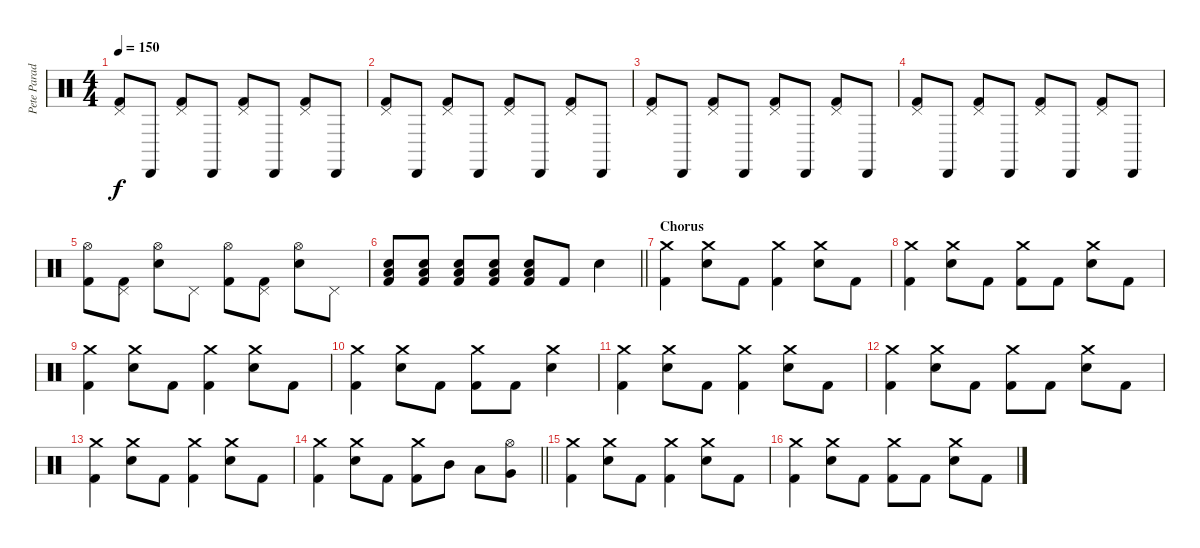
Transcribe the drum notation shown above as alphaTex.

\track ("Pete Parada - Drums" "Pete Parad") {instrument percussion}
\staff {score}
\articulation defaults
\ts (4 4)
\tempo 150
\clef neutral
\ks c
("Pedal Hi-Hat (hit)" "Kick (hit) 2").8{dy f} "Cabasa (hit)".8 ("Pedal Hi-Hat (hit)" "Kick (hit) 2").8 "Cabasa (hit)".8 ("Pedal Hi-Hat (hit)" "Kick (hit) 2").8 "Cabasa (hit)".8 ("Pedal Hi-Hat (hit)" "Kick (hit) 2").8 "Cabasa (hit)".8 |
("Pedal Hi-Hat (hit)" "Kick (hit) 2").8 "Cabasa (hit)".8 ("Pedal Hi-Hat (hit)" "Kick (hit) 2").8 "Cabasa (hit)".8 ("Pedal Hi-Hat (hit)" "Kick (hit) 2").8 "Cabasa (hit)".8 ("Pedal Hi-Hat (hit)" "Kick (hit) 2").8 "Cabasa (hit)".8 |
("Pedal Hi-Hat (hit)" "Kick (hit) 2").8 "Cabasa (hit)".8 ("Pedal Hi-Hat (hit)" "Kick (hit) 2").8 "Cabasa (hit)".8 ("Pedal Hi-Hat (hit)" "Kick (hit) 2").8 "Cabasa (hit)".8 ("Pedal Hi-Hat (hit)" "Kick (hit) 2").8 "Cabasa (hit)".8 |
("Pedal Hi-Hat (hit)" "Kick (hit) 2").8 "Cabasa (hit)".8 ("Pedal Hi-Hat (hit)" "Kick (hit) 2").8 "Cabasa (hit)".8 ("Pedal Hi-Hat (hit)" "Kick (hit) 2").8 "Cabasa (hit)".8 ("Pedal Hi-Hat (hit)" "Kick (hit) 2").8 "Cabasa (hit)".8 |
("Hi-Hat (open)" "Kick (hit) 2").8 ("Pedal Hi-Hat (hit)" "Kick (hit) 2").8 ("Hi-Hat (open)" "Electric Snare (hit)").8 "Pedal Hi-Hat (hit)".8 ("Hi-Hat (open)" "Kick (hit) 2").8 ("Pedal Hi-Hat (hit)" "Kick (hit) 2").8 ("Hi-Hat (open)" "Electric Snare (hit)").8 "Pedal Hi-Hat (hit)".8 |
\barLineRight lightlight
("Electric Snare (hit)" "Low Floor Tom (hit)" "Kick (hit) 2").8 ("Electric Snare (hit)" "Low Floor Tom (hit)" "Kick (hit) 2").8 ("Electric Snare (hit)" "Low Floor Tom (hit)" "Kick (hit) 2").8 ("Electric Snare (hit)" "Low Floor Tom (hit)" "Kick (hit) 2").8 ("Electric Snare (hit)" "Low Floor Tom (hit)" "Kick (hit) 2").8 "Kick (hit) 2".8 "Electric Snare (hit)".4 |
\section ("" "Chorus")
("Crash medium (hit)" "Kick (hit) 2").4 ("Crash medium (hit)" "Electric Snare (hit)").8 "Kick (hit) 2".8 ("Crash medium (hit)" "Kick (hit) 2").4 ("Crash medium (hit)" "Electric Snare (hit)").8 "Kick (hit) 2".8 |
("Crash medium (hit)" "Kick (hit) 2").4 ("Crash medium (hit)" "Electric Snare (hit)").8 "Kick (hit) 2".8 ("Crash medium (hit)" "Kick (hit) 2").8 "Kick (hit) 2".8 ("Crash medium (hit)" "Electric Snare (hit)").8 "Kick (hit) 2".8 |
("Crash medium (hit)" "Kick (hit) 2").4 ("Crash medium (hit)" "Electric Snare (hit)").8 "Kick (hit) 2".8 ("Crash medium (hit)" "Kick (hit) 2").4 ("Crash medium (hit)" "Electric Snare (hit)").8 "Kick (hit) 2".8 |
("Crash medium (hit)" "Kick (hit) 2").4 ("Crash medium (hit)" "Electric Snare (hit)").8 "Kick (hit) 2".8 ("Crash medium (hit)" "Kick (hit) 2").8 "Kick (hit) 2".8 ("Crash medium (hit)" "Electric Snare (hit)").4 |
("Crash medium (hit)" "Kick (hit) 2").4 ("Crash medium (hit)" "Electric Snare (hit)").8 "Kick (hit) 2".8 ("Crash medium (hit)" "Kick (hit) 2").4 ("Crash medium (hit)" "Electric Snare (hit)").8 "Kick (hit) 2".8 |
("Crash medium (hit)" "Kick (hit) 2").4 ("Crash medium (hit)" "Electric Snare (hit)").8 "Kick (hit) 2".8 ("Crash medium (hit)" "Kick (hit) 2").8 "Kick (hit) 2".8 ("Crash medium (hit)" "Electric Snare (hit)").8 "Kick (hit) 2".8 |
("Crash medium (hit)" "Kick (hit) 2").4 ("Crash medium (hit)" "Electric Snare (hit)").8 "Kick (hit) 2".8 ("Crash medium (hit)" "Kick (hit) 2").4 ("Crash medium (hit)" "Electric Snare (hit)").8 "Kick (hit) 2".8 |
\barLineRight lightlight
("Crash medium (hit)" "Kick (hit) 2").4 ("Crash medium (hit)" "Electric Snare (hit)").8 "Kick (hit) 2".8 ("Crash medium (hit)" "Kick (hit) 2").8 "Mid Tom (hit)".8 "Low Tom (hit)".8 ("Hi-Hat (open)" "Very Low Tom (hit)").8 |
("Crash medium (hit)" "Kick (hit) 2").4 ("Crash medium (hit)" "Electric Snare (hit)").8 "Kick (hit) 2".8 ("Crash medium (hit)" "Kick (hit) 2").4 ("Crash medium (hit)" "Electric Snare (hit)").8 "Kick (hit) 2".8 |
("Crash medium (hit)" "Kick (hit) 2").4 ("Crash medium (hit)" "Electric Snare (hit)").8 "Kick (hit) 2".8 ("Crash medium (hit)" "Kick (hit) 2").8 "Kick (hit) 2".8 ("Crash medium (hit)" "Electric Snare (hit)").8 "Kick (hit) 2".8
